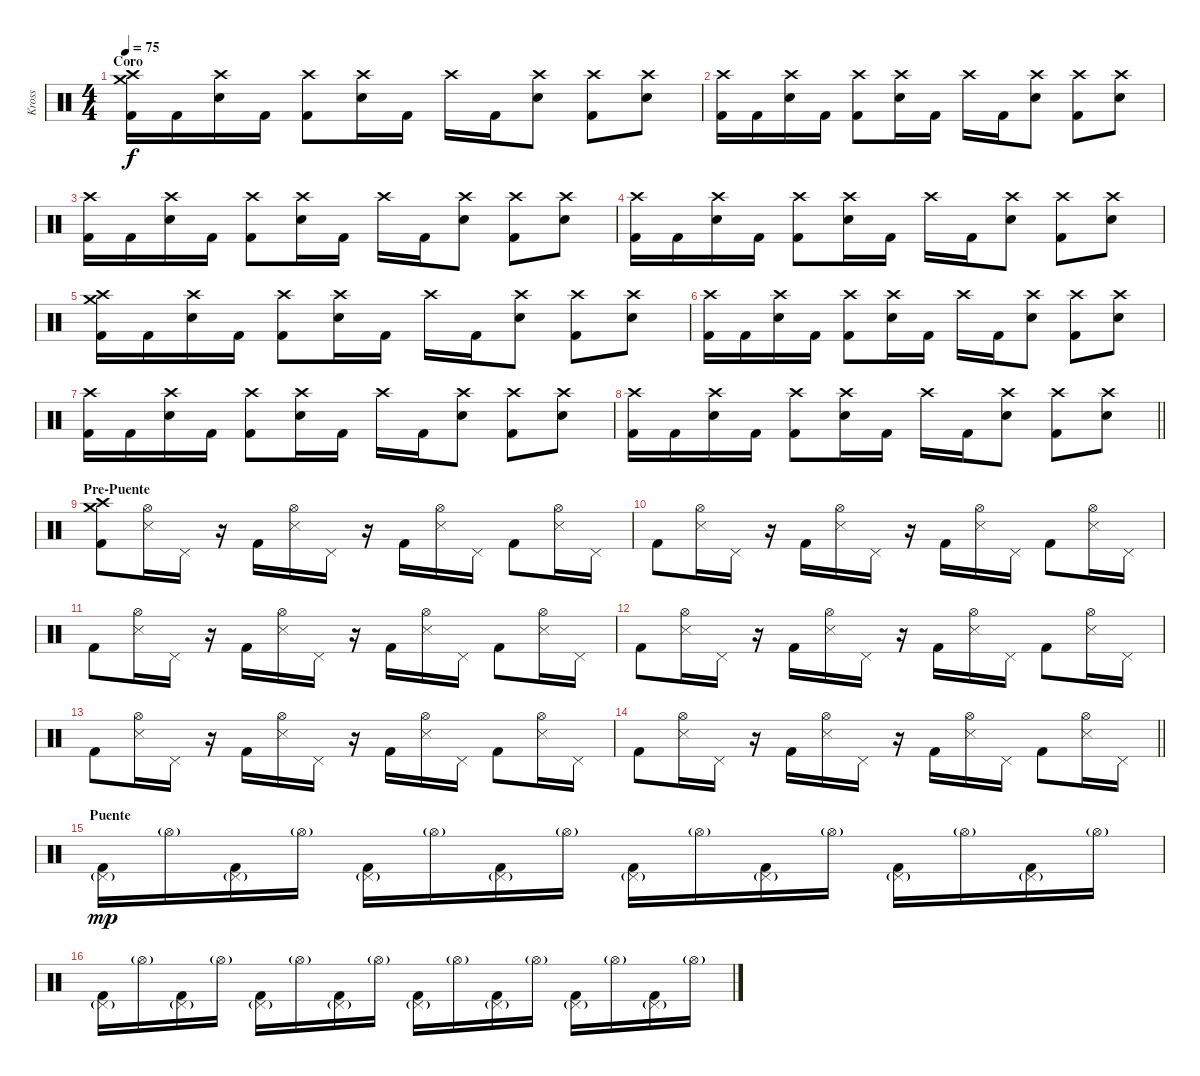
\track ("Kross" "Kross") {instrument percussion}
\staff
\articulation defaults
\ts (4 4)
\section ("" "Coro")
\tempo 75
\clef neutral
\ks c
("Crash medium (hit)" "Crash high (hit)" "Kick (hit) 2").16{dy f} "Kick (hit) 2".16 ("Crash high (hit)" "Electric Snare (hit)").16 "Kick (hit) 2".16 ("Crash high (hit)" "Kick (hit) 2").8 ("Crash high (hit)" "Electric Snare (hit)").16 "Kick (hit) 2".16 "Crash high (hit)".16 "Kick (hit) 2".16 ("Crash high (hit)" "Electric Snare (hit)").8 ("Crash high (hit)" "Kick (hit) 2").8 ("Crash high (hit)" "Electric Snare (hit)").8 |
("Crash high (hit)" "Kick (hit) 2").16 "Kick (hit) 2".16 ("Crash high (hit)" "Electric Snare (hit)").16 "Kick (hit) 2".16 ("Crash high (hit)" "Kick (hit) 2").8 ("Crash high (hit)" "Electric Snare (hit)").16 "Kick (hit) 2".16 "Crash high (hit)".16 "Kick (hit) 2".16 ("Crash high (hit)" "Electric Snare (hit)").8 ("Crash high (hit)" "Kick (hit) 2").8 ("Crash high (hit)" "Electric Snare (hit)").8 |
("Crash high (hit)" "Kick (hit) 2").16 "Kick (hit) 2".16 ("Crash high (hit)" "Electric Snare (hit)").16 "Kick (hit) 2".16 ("Crash high (hit)" "Kick (hit) 2").8 ("Crash high (hit)" "Electric Snare (hit)").16 "Kick (hit) 2".16 "Crash high (hit)".16 "Kick (hit) 2".16 ("Crash high (hit)" "Electric Snare (hit)").8 ("Crash high (hit)" "Kick (hit) 2").8 ("Crash high (hit)" "Electric Snare (hit)").8 |
("Crash high (hit)" "Kick (hit) 2").16 "Kick (hit) 2".16 ("Crash high (hit)" "Electric Snare (hit)").16 "Kick (hit) 2".16 ("Crash high (hit)" "Kick (hit) 2").8 ("Crash high (hit)" "Electric Snare (hit)").16 "Kick (hit) 2".16 "Crash high (hit)".16 "Kick (hit) 2".16 ("Crash high (hit)" "Electric Snare (hit)").8 ("Crash high (hit)" "Kick (hit) 2").8 ("Crash high (hit)" "Electric Snare (hit)").8 |
("Crash medium (hit)" "Crash high (hit)" "Kick (hit) 2").16 "Kick (hit) 2".16 ("Crash high (hit)" "Electric Snare (hit)").16 "Kick (hit) 2".16 ("Crash high (hit)" "Kick (hit) 2").8 ("Crash high (hit)" "Electric Snare (hit)").16 "Kick (hit) 2".16 "Crash high (hit)".16 "Kick (hit) 2".16 ("Crash high (hit)" "Electric Snare (hit)").8 ("Crash high (hit)" "Kick (hit) 2").8 ("Crash high (hit)" "Electric Snare (hit)").8 |
("Crash high (hit)" "Kick (hit) 2").16 "Kick (hit) 2".16 ("Crash high (hit)" "Electric Snare (hit)").16 "Kick (hit) 2".16 ("Crash high (hit)" "Kick (hit) 2").8 ("Crash high (hit)" "Electric Snare (hit)").16 "Kick (hit) 2".16 "Crash high (hit)".16 "Kick (hit) 2".16 ("Crash high (hit)" "Electric Snare (hit)").8 ("Crash high (hit)" "Kick (hit) 2").8 ("Crash high (hit)" "Electric Snare (hit)").8 |
("Crash high (hit)" "Kick (hit) 2").16 "Kick (hit) 2".16 ("Crash high (hit)" "Electric Snare (hit)").16 "Kick (hit) 2".16 ("Crash high (hit)" "Kick (hit) 2").8 ("Crash high (hit)" "Electric Snare (hit)").16 "Kick (hit) 2".16 "Crash high (hit)".16 "Kick (hit) 2".16 ("Crash high (hit)" "Electric Snare (hit)").8 ("Crash high (hit)" "Kick (hit) 2").8 ("Crash high (hit)" "Electric Snare (hit)").8 |
\barLineRight lightlight
("Crash high (hit)" "Kick (hit) 2").16 "Kick (hit) 2".16 ("Crash high (hit)" "Electric Snare (hit)").16 "Kick (hit) 2".16 ("Crash high (hit)" "Kick (hit) 2").8 ("Crash high (hit)" "Electric Snare (hit)").16 "Kick (hit) 2".16 "Crash high (hit)".16 "Kick (hit) 2".16 ("Crash high (hit)" "Electric Snare (hit)").8 ("Crash high (hit)" "Kick (hit) 2").8 ("Crash high (hit)" "Electric Snare (hit)").8 |
\section ("" "Pre-Puente")
("Crash medium (hit)" "Crash high (hit)" "Kick (hit) 2").8 ("Hi-Hat (open)" "Snare (side stick) 3").16 "Pedal Hi-Hat (hit)".16 r.16 "Kick (hit) 2".16 ("Hi-Hat (open)" "Snare (side stick) 3").16 "Pedal Hi-Hat (hit)".16 r.16 "Kick (hit) 2".16 ("Hi-Hat (open)" "Snare (side stick) 3").16 "Pedal Hi-Hat (hit)".16 "Kick (hit) 2".8 ("Hi-Hat (open)" "Snare (side stick) 3").16 "Pedal Hi-Hat (hit)".16 |
"Kick (hit) 2".8 ("Hi-Hat (open)" "Snare (side stick) 3").16 "Pedal Hi-Hat (hit)".16 r.16 "Kick (hit) 2".16 ("Hi-Hat (open)" "Snare (side stick) 3").16 "Pedal Hi-Hat (hit)".16 r.16 "Kick (hit) 2".16 ("Hi-Hat (open)" "Snare (side stick) 3").16 "Pedal Hi-Hat (hit)".16 "Kick (hit) 2".8 ("Hi-Hat (open)" "Snare (side stick) 3").16 "Pedal Hi-Hat (hit)".16 |
"Kick (hit) 2".8 ("Hi-Hat (open)" "Snare (side stick) 3").16 "Pedal Hi-Hat (hit)".16 r.16 "Kick (hit) 2".16 ("Hi-Hat (open)" "Snare (side stick) 3").16 "Pedal Hi-Hat (hit)".16 r.16 "Kick (hit) 2".16 ("Hi-Hat (open)" "Snare (side stick) 3").16 "Pedal Hi-Hat (hit)".16 "Kick (hit) 2".8 ("Hi-Hat (open)" "Snare (side stick) 3").16 "Pedal Hi-Hat (hit)".16 |
"Kick (hit) 2".8 ("Hi-Hat (open)" "Snare (side stick) 3").16 "Pedal Hi-Hat (hit)".16 r.16 "Kick (hit) 2".16 ("Hi-Hat (open)" "Snare (side stick) 3").16 "Pedal Hi-Hat (hit)".16 r.16 "Kick (hit) 2".16 ("Hi-Hat (open)" "Snare (side stick) 3").16 "Pedal Hi-Hat (hit)".16 "Kick (hit) 2".8 ("Hi-Hat (open)" "Snare (side stick) 3").16 "Pedal Hi-Hat (hit)".16 |
"Kick (hit) 2".8 ("Hi-Hat (open)" "Snare (side stick) 3").16 "Pedal Hi-Hat (hit)".16 r.16 "Kick (hit) 2".16 ("Hi-Hat (open)" "Snare (side stick) 3").16 "Pedal Hi-Hat (hit)".16 r.16 "Kick (hit) 2".16 ("Hi-Hat (open)" "Snare (side stick) 3").16 "Pedal Hi-Hat (hit)".16 "Kick (hit) 2".8 ("Hi-Hat (open)" "Snare (side stick) 3").16 "Pedal Hi-Hat (hit)".16 |
\barLineRight lightlight "Kick (hit) 2".8
("Hi-Hat (open)" "Snare (side stick) 3").16 "Pedal Hi-Hat (hit)".16 r.16 "Kick (hit) 2".16 ("Hi-Hat (open)" "Snare (side stick) 3").16 "Pedal Hi-Hat (hit)".16 r.16 "Kick (hit) 2".16 ("Hi-Hat (open)" "Snare (side stick) 3").16 "Pedal Hi-Hat (hit)".16 "Kick (hit) 2".8 ("Hi-Hat (open)" "Snare (side stick) 3").16 "Pedal Hi-Hat (hit)".16 |
\section ("" "Puente")
("Pedal Hi-Hat (hit)"{g} "Kick (hit) 2").16{dy mp} "Hi-Hat (open)"{g}.16 ("Pedal Hi-Hat (hit)"{g} "Kick (hit) 2").16 "Hi-Hat (open)"{g}.16 ("Pedal Hi-Hat (hit)"{g} "Kick (hit) 2").16 "Hi-Hat (open)"{g}.16 ("Pedal Hi-Hat (hit)"{g} "Kick (hit) 2").16 "Hi-Hat (open)"{g}.16 ("Pedal Hi-Hat (hit)"{g} "Kick (hit) 2").16 "Hi-Hat (open)"{g}.16 ("Pedal Hi-Hat (hit)"{g} "Kick (hit) 2").16 "Hi-Hat (open)"{g}.16 ("Pedal Hi-Hat (hit)"{g} "Kick (hit) 2").16 "Hi-Hat (open)"{g}.16 ("Pedal Hi-Hat (hit)"{g} "Kick (hit) 2").16 "Hi-Hat (open)"{g}.16 |
("Pedal Hi-Hat (hit)"{g} "Kick (hit) 2").16 "Hi-Hat (open)"{g}.16 ("Pedal Hi-Hat (hit)"{g} "Kick (hit) 2").16 "Hi-Hat (open)"{g}.16 ("Pedal Hi-Hat (hit)"{g} "Kick (hit) 2").16 "Hi-Hat (open)"{g}.16 ("Pedal Hi-Hat (hit)"{g} "Kick (hit) 2").16 "Hi-Hat (open)"{g}.16 ("Pedal Hi-Hat (hit)"{g} "Kick (hit) 2").16 "Hi-Hat (open)"{g}.16 ("Pedal Hi-Hat (hit)"{g} "Kick (hit) 2").16 "Hi-Hat (open)"{g}.16 ("Pedal Hi-Hat (hit)"{g} "Kick (hit) 2").16 "Hi-Hat (open)"{g}.16 ("Pedal Hi-Hat (hit)"{g} "Kick (hit) 2").16 "Hi-Hat (open)"{g}.16
